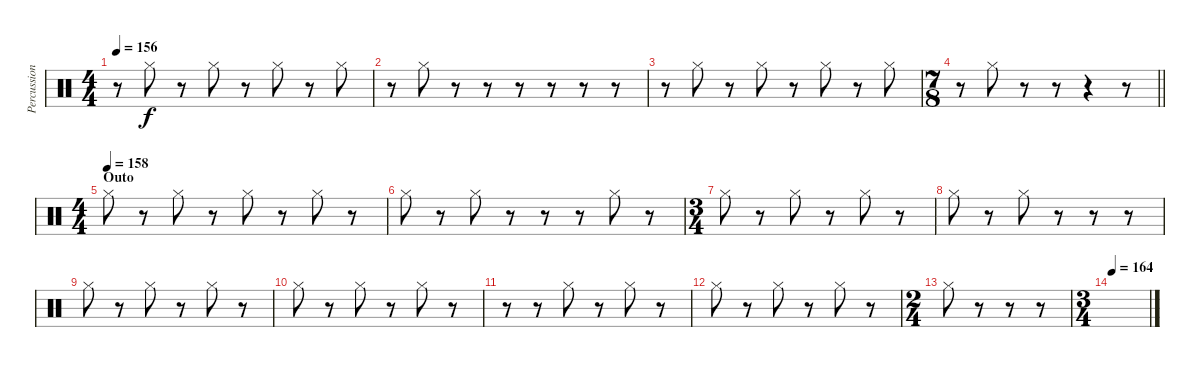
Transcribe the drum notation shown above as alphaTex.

\track ("Percussion" "Percussion") {instrument percussion}
\staff {score}
\articulation defaults
\ts (4 4)
\tempo 156
\clef neutral
\ks c
r.8{dy f} "Hi-Hat (closed)".8 r.8 "Hi-Hat (closed)".8 r.8 "Hi-Hat (closed)".8 r.8 "Hi-Hat (closed)".8 |
r.8 "Hi-Hat (closed)".8 r.8 r.8 r.8 r.8 r.8 r.8 |
r.8 "Hi-Hat (closed)".8 r.8 "Hi-Hat (closed)".8 r.8 "Hi-Hat (closed)".8 r.8 "Hi-Hat (closed)".8 |
\ts (7 8)
\barLineRight lightlight
r.8 "Hi-Hat (closed)".8 r.8 r.8 r.4 r.8 |
\ts (4 4)
\section ("" "Outo")
\tempo (158)
"Hi-Hat (closed)".8 r.8 "Hi-Hat (closed)".8 r.8 "Hi-Hat (closed)".8 r.8 "Hi-Hat (closed)".8 r.8 |
"Hi-Hat (closed)".8 r.8 "Hi-Hat (closed)".8 r.8 r.8 r.8 "Hi-Hat (closed)".8 r.8 |
\ts (3 4)
"Hi-Hat (closed)".8 r.8 "Hi-Hat (closed)".8 r.8 "Hi-Hat (closed)".8 r.8 |
"Hi-Hat (closed)".8 r.8 "Hi-Hat (closed)".8 r.8 r.8 r.8 |
"Hi-Hat (closed)".8 r.8 "Hi-Hat (closed)".8 r.8 "Hi-Hat (closed)".8 r.8 |
"Hi-Hat (closed)".8 r.8 "Hi-Hat (closed)".8 r.8 "Hi-Hat (closed)".8 r.8 |
r.8 r.8 "Hi-Hat (closed)".8 r.8 "Hi-Hat (closed)".8 r.8 |
"Hi-Hat (closed)".8 r.8 "Hi-Hat (closed)".8 r.8 "Hi-Hat (closed)".8 r.8 |
\ts (2 4)
"Hi-Hat (closed)".8 r.8 r.8 r.8 |
\ts (3 4)
\tempo 164
